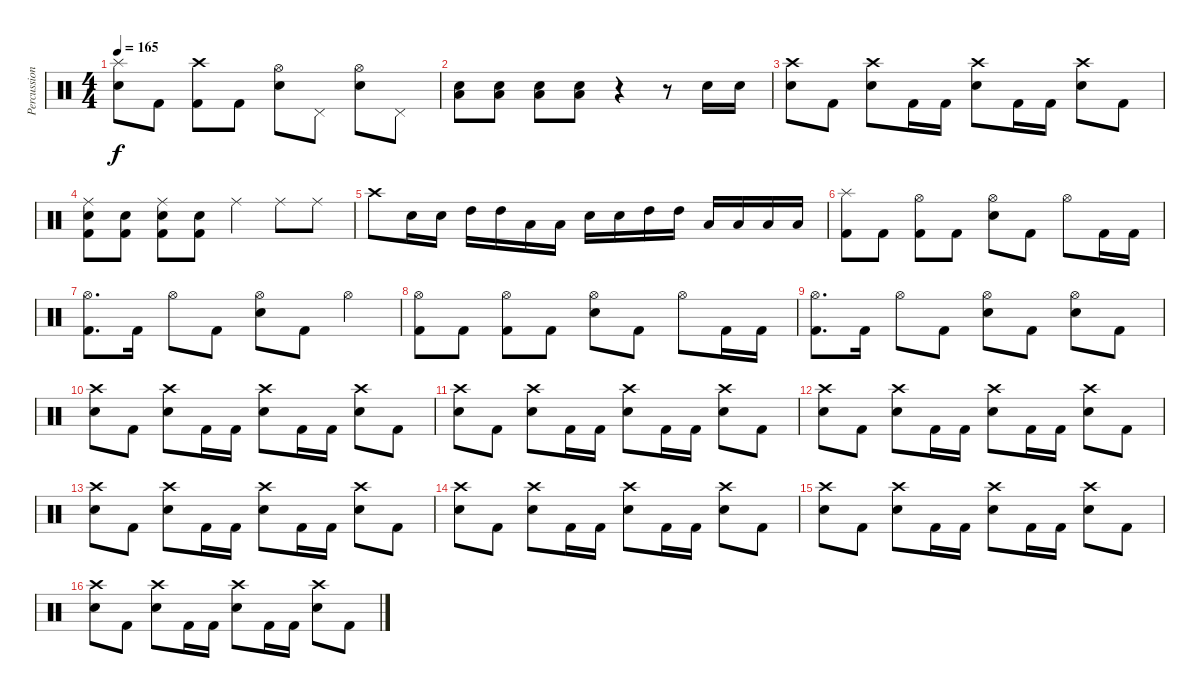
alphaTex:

\track ("Percussion" "Percussion") {instrument percussion}
\staff {score}
\articulation defaults
\ts (4 4)
\tempo 165
\clef neutral
\ks c
("Splash (hit)" "Electric Snare (hit)").8{dy f} "Kick (hit) 2".8 ("Crash high (hit)" "Kick (hit) 2").8 "Kick (hit) 2".8 ("Hi-Hat (open)" "Electric Snare (hit)").8 "Pedal Hi-Hat (hit)".8 ("Hi-Hat (open)" "Electric Snare (hit)").8 "Pedal Hi-Hat (hit)".8 |
("Electric Snare (hit)" "Low Floor Tom (hit)").8 ("Electric Snare (hit)" "Low Floor Tom (hit)").8 ("Electric Snare (hit)" "Low Floor Tom (hit)").8 ("Electric Snare (hit)" "Low Floor Tom (hit)").8 r.4 r.8 "Electric Snare (hit)".16 "Electric Snare (hit)".16 |
("Crash high (hit)" "Electric Snare (hit)").8 "Kick (hit) 2".8 ("Crash high (hit)" "Electric Snare (hit)").8 "Kick (hit) 2".16 "Kick (hit) 2".16 ("Crash high (hit)" "Electric Snare (hit)").8 "Kick (hit) 2".16 "Kick (hit) 2".16 ("Crash high (hit)" "Electric Snare (hit)").8 "Kick (hit) 2".8 |
("Ride (middle)" "Electric Snare (hit)" "Kick (hit) 2").8 ("Electric Snare (hit)" "Kick (hit) 2").8 ("Ride (middle)" "Electric Snare (hit)" "Kick (hit) 2").8 ("Electric Snare (hit)" "Kick (hit) 2").8 "Ride (middle)".4 "Ride (middle)".8 "Ride (middle)".8 |
"Crash high (hit)".8 "Electric Snare (hit)".16 "Electric Snare (hit)".16 "High Tom (hit)".16 "High Tom (hit)".16 "Low Tom (hit)".16 "Low Tom (hit)".16 "Electric Snare (hit)".16 "Electric Snare (hit)".16 "High Tom (hit)".16 "High Tom (hit)".16 "Low Tom (hit)".16 "Low Tom (hit)".16 "Low Floor Tom (hit)".16 "Low Floor Tom (hit)".16 |
("Splash (hit)" "Kick (hit) 2").8 "Kick (hit) 2".8 ("Hi-Hat (open)" "Kick (hit) 2").8 "Kick (hit) 2".8 ("Hi-Hat (open)" "Electric Snare (hit)").8 "Kick (hit) 2".8 "Hi-Hat (open)".8 "Kick (hit) 2".16 "Kick (hit) 2".16 |
("Hi-Hat (open)" "Kick (hit) 2").8{d} "Kick (hit) 2".16 "Hi-Hat (open)".8 "Kick (hit) 2".8 ("Hi-Hat (open)" "Electric Snare (hit)").8 "Kick (hit) 2".8 "Hi-Hat (open)".4 |
("Hi-Hat (open)" "Kick (hit) 2").8 "Kick (hit) 2".8 ("Hi-Hat (open)" "Kick (hit) 2").8 "Kick (hit) 2".8 ("Hi-Hat (open)" "Electric Snare (hit)").8 "Kick (hit) 2".8 "Hi-Hat (open)".8 "Kick (hit) 2".16 "Kick (hit) 2".16 |
("Hi-Hat (open)" "Kick (hit) 2").8{d} "Kick (hit) 2".16 "Hi-Hat (open)".8 "Kick (hit) 2".8 ("Hi-Hat (open)" "Electric Snare (hit)").8 "Kick (hit) 2".8 ("Hi-Hat (open)" "Electric Snare (hit)").8 "Kick (hit) 2".8 |
("Crash high (hit)" "Electric Snare (hit)").8 "Kick (hit) 2".8 ("Crash high (hit)" "Electric Snare (hit)").8 "Kick (hit) 2".16 "Kick (hit) 2".16 ("Crash high (hit)" "Electric Snare (hit)").8 "Kick (hit) 2".16 "Kick (hit) 2".16 ("Crash high (hit)" "Electric Snare (hit)").8 "Kick (hit) 2".8 |
("Crash high (hit)" "Electric Snare (hit)").8 "Kick (hit) 2".8 ("Crash high (hit)" "Electric Snare (hit)").8 "Kick (hit) 2".16 "Kick (hit) 2".16 ("Crash high (hit)" "Electric Snare (hit)").8 "Kick (hit) 2".16 "Kick (hit) 2".16 ("Crash high (hit)" "Electric Snare (hit)").8 "Kick (hit) 2".8 |
("Crash high (hit)" "Electric Snare (hit)").8 "Kick (hit) 2".8 ("Crash high (hit)" "Electric Snare (hit)").8 "Kick (hit) 2".16 "Kick (hit) 2".16 ("Crash high (hit)" "Electric Snare (hit)").8 "Kick (hit) 2".16 "Kick (hit) 2".16 ("Crash high (hit)" "Electric Snare (hit)").8 "Kick (hit) 2".8 |
("Crash high (hit)" "Electric Snare (hit)").8 "Kick (hit) 2".8 ("Crash high (hit)" "Electric Snare (hit)").8 "Kick (hit) 2".16 "Kick (hit) 2".16 ("Crash high (hit)" "Electric Snare (hit)").8 "Kick (hit) 2".16 "Kick (hit) 2".16 ("Crash high (hit)" "Electric Snare (hit)").8 "Kick (hit) 2".8 |
("Crash high (hit)" "Electric Snare (hit)").8 "Kick (hit) 2".8 ("Crash high (hit)" "Electric Snare (hit)").8 "Kick (hit) 2".16 "Kick (hit) 2".16 ("Crash high (hit)" "Electric Snare (hit)").8 "Kick (hit) 2".16 "Kick (hit) 2".16 ("Crash high (hit)" "Electric Snare (hit)").8 "Kick (hit) 2".8 |
("Crash high (hit)" "Electric Snare (hit)").8 "Kick (hit) 2".8 ("Crash high (hit)" "Electric Snare (hit)").8 "Kick (hit) 2".16 "Kick (hit) 2".16 ("Crash high (hit)" "Electric Snare (hit)").8 "Kick (hit) 2".16 "Kick (hit) 2".16 ("Crash high (hit)" "Electric Snare (hit)").8 "Kick (hit) 2".8 |
("Crash high (hit)" "Electric Snare (hit)").8 "Kick (hit) 2".8 ("Crash high (hit)" "Electric Snare (hit)").8 "Kick (hit) 2".16 "Kick (hit) 2".16 ("Crash high (hit)" "Electric Snare (hit)").8 "Kick (hit) 2".16 "Kick (hit) 2".16 ("Crash high (hit)" "Electric Snare (hit)").8 "Kick (hit) 2".8
